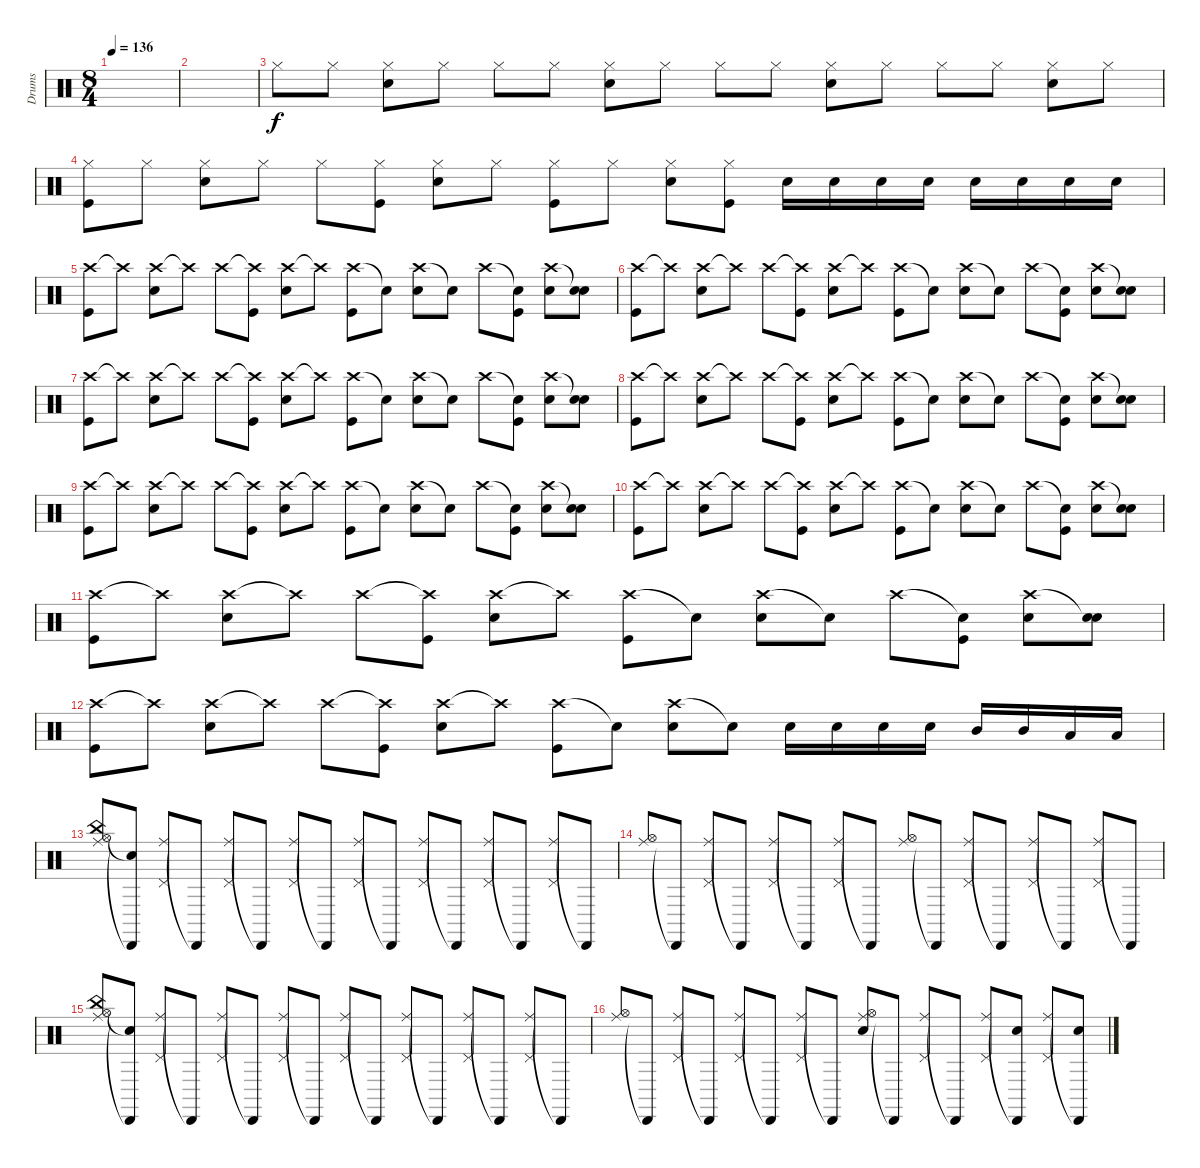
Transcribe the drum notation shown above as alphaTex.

\track ("Drums" "Drums") {instrument percussion}
\staff {score}
\articulation defaults
\ts (8 4)
\tempo 136
\clef neutral
\ks c
|
|
"Hi-Hat (closed)".8 "Hi-Hat (closed)".8 ("Hi-Hat (closed)" "Snare (hit) 2").8 "Hi-Hat (closed)".8 "Hi-Hat (closed)".8 "Hi-Hat (closed)".8 ("Hi-Hat (closed)" "Snare (hit) 2").8 "Hi-Hat (closed)".8 "Hi-Hat (closed)".8 "Hi-Hat (closed)".8 ("Hi-Hat (closed)" "Snare (hit) 2").8 "Hi-Hat (closed)".8 "Hi-Hat (closed)".8 "Hi-Hat (closed)".8 ("Hi-Hat (closed)" "Snare (hit) 2").8 "Hi-Hat (closed)".8 |
("Hi-Hat (closed)" "Kick (hit)").8 "Hi-Hat (closed)".8 ("Hi-Hat (closed)" "Snare (hit) 2").8 "Hi-Hat (closed)".8 "Hi-Hat (closed)".8 ("Hi-Hat (closed)" "Kick (hit)").8 ("Hi-Hat (closed)" "Snare (hit) 2").8 "Hi-Hat (closed)".8 ("Hi-Hat (closed)" "Kick (hit)").8 "Hi-Hat (closed)".8 ("Hi-Hat (closed)" "Snare (hit) 2").8 ("Hi-Hat (closed)" "Kick (hit)").8 "Snare (hit) 2".16 "Snare (hit) 2".16 "Snare (hit) 2".16 "Snare (hit) 2".16 "Snare (hit) 2".16 "Snare (hit) 2".16 "Snare (hit) 2".16 "Snare (hit) 2".16 |
("Crash high (hit)" "Kick (hit)").8 "Crash high (hit)"{t}.8 ("Crash high (hit)" "Snare (hit) 2").8 "Crash high (hit)"{t}.8 "Crash high (hit)".8 ("Crash high (hit)"{t} "Kick (hit)").8 ("Crash high (hit)" "Snare (hit) 2").8 "Crash high (hit)"{t}.8 ("Crash high (hit)" "Kick (hit)").8 "Snare (hit)"{t}.8 ("Crash high (hit)" "Snare (hit) 2").8 "Snare (hit)"{t}.8 "Crash high (hit)".8 ("Snare (hit)"{t} "Kick (hit)").8 ("Crash high (hit)" "Snare (hit) 2").8 ("Snare (hit)"{t} "Snare (hit) 2").8 |
("Crash high (hit)" "Kick (hit)").8 "Crash high (hit)"{t}.8 ("Crash high (hit)" "Snare (hit) 2").8 "Crash high (hit)"{t}.8 "Crash high (hit)".8 ("Crash high (hit)"{t} "Kick (hit)").8 ("Crash high (hit)" "Snare (hit) 2").8 "Crash high (hit)"{t}.8 ("Crash high (hit)" "Kick (hit)").8 "Snare (hit)"{t}.8 ("Crash high (hit)" "Snare (hit) 2").8 "Snare (hit)"{t}.8 "Crash high (hit)".8 ("Snare (hit)"{t} "Kick (hit)").8 ("Crash high (hit)" "Snare (hit) 2").8 ("Snare (hit)"{t} "Snare (hit) 2").8 |
("Crash high (hit)" "Kick (hit)").8 "Crash high (hit)"{t}.8 ("Crash high (hit)" "Snare (hit) 2").8 "Crash high (hit)"{t}.8 "Crash high (hit)".8 ("Crash high (hit)"{t} "Kick (hit)").8 ("Crash high (hit)" "Snare (hit) 2").8 "Crash high (hit)"{t}.8 ("Crash high (hit)" "Kick (hit)").8 "Snare (hit)"{t}.8 ("Crash high (hit)" "Snare (hit) 2").8 "Snare (hit)"{t}.8 "Crash high (hit)".8 ("Snare (hit)"{t} "Kick (hit)").8 ("Crash high (hit)" "Snare (hit) 2").8 ("Snare (hit)"{t} "Snare (hit) 2").8 |
("Crash high (hit)" "Kick (hit)").8 "Crash high (hit)"{t}.8 ("Crash high (hit)" "Snare (hit) 2").8 "Crash high (hit)"{t}.8 "Crash high (hit)".8 ("Crash high (hit)"{t} "Kick (hit)").8 ("Crash high (hit)" "Snare (hit) 2").8 "Crash high (hit)"{t}.8 ("Crash high (hit)" "Kick (hit)").8 "Snare (hit)"{t}.8 ("Crash high (hit)" "Snare (hit) 2").8 "Snare (hit)"{t}.8 "Crash high (hit)".8 ("Snare (hit)"{t} "Kick (hit)").8 ("Crash high (hit)" "Snare (hit) 2").8 ("Snare (hit)"{t} "Snare (hit) 2").8 |
("Crash high (hit)" "Kick (hit)").8 "Crash high (hit)"{t}.8 ("Crash high (hit)" "Snare (hit) 2").8 "Crash high (hit)"{t}.8 "Crash high (hit)".8 ("Crash high (hit)"{t} "Kick (hit)").8 ("Crash high (hit)" "Snare (hit) 2").8 "Crash high (hit)"{t}.8 ("Crash high (hit)" "Kick (hit)").8 "Snare (hit)"{t}.8 ("Crash high (hit)" "Snare (hit) 2").8 "Snare (hit)"{t}.8 "Crash high (hit)".8 ("Snare (hit)"{t} "Kick (hit)").8 ("Crash high (hit)" "Snare (hit) 2").8 ("Snare (hit)"{t} "Snare (hit) 2").8 |
("Crash high (hit)" "Kick (hit)").8 "Crash high (hit)"{t}.8 ("Crash high (hit)" "Snare (hit) 2").8 "Crash high (hit)"{t}.8 "Crash high (hit)".8 ("Crash high (hit)"{t} "Kick (hit)").8 ("Crash high (hit)" "Snare (hit) 2").8 "Crash high (hit)"{t}.8 ("Crash high (hit)" "Kick (hit)").8 "Snare (hit)"{t}.8 ("Crash high (hit)" "Snare (hit) 2").8 "Snare (hit)"{t}.8 "Crash high (hit)".8 ("Snare (hit)"{t} "Kick (hit)").8 ("Crash high (hit)" "Snare (hit) 2").8 ("Snare (hit)"{t} "Snare (hit) 2").8 |
("Crash high (hit)" "Kick (hit)").8 "Crash high (hit)"{t}.8 ("Crash high (hit)" "Snare (hit) 2").8 "Crash high (hit)"{t}.8 "Crash high (hit)".8 ("Crash high (hit)"{t} "Kick (hit)").8 ("Crash high (hit)" "Snare (hit) 2").8 "Crash high (hit)"{t}.8 ("Crash high (hit)" "Kick (hit)").8 "Snare (hit)"{t}.8 ("Crash high (hit)" "Snare (hit) 2").8 "Snare (hit)"{t}.8 "Crash high (hit)".8 ("Snare (hit)"{t} "Kick (hit)").8 ("Crash high (hit)" "Snare (hit) 2").8 ("Snare (hit)"{t} "Snare (hit) 2").8 |
("Crash high (hit)" "Kick (hit)").8 "Crash high (hit)"{t}.8 ("Crash high (hit)" "Snare (hit) 2").8 "Crash high (hit)"{t}.8 "Crash high (hit)".8 ("Crash high (hit)"{t} "Kick (hit)").8 ("Crash high (hit)" "Snare (hit) 2").8 "Crash high (hit)"{t}.8 ("Crash high (hit)" "Kick (hit)").8 "Snare (hit)"{t}.8 ("Crash high (hit)" "Snare (hit) 2").8 "Snare (hit)"{t}.8 "Snare (hit) 2".16 "Snare (hit) 2".16 "Snare (hit) 2".16 "Snare (hit) 2".16 "Mid Tom (hit)".16 "Mid Tom (hit)".16 "Low Tom (hit)".16 "Low Floor Tom (hit)".16 |
("China (hit)" "Ride (middle)" "Hi-Hat (open)").8 ("Snare (hit)"{t} "Cabasa (hit)"{t}).8 ("Ride (middle)" "Pedal Hi-Hat (hit)").8 "Cabasa (hit)"{t}.8 ("Ride (middle)" "Pedal Hi-Hat (hit)").8 "Cabasa (hit)"{t}.8 ("Ride (middle)" "Pedal Hi-Hat (hit)").8 "Cabasa (hit)"{t}.8 ("Ride (middle)" "Pedal Hi-Hat (hit)").8 "Cabasa (hit)"{t}.8 ("Ride (middle)" "Pedal Hi-Hat (hit)").8 "Cabasa (hit)"{t}.8 ("Ride (middle)" "Pedal Hi-Hat (hit)").8 "Cabasa (hit)"{t}.8 ("Ride (middle)" "Pedal Hi-Hat (hit)").8 "Cabasa (hit)"{t}.8 |
("Ride (middle)" "Hi-Hat (open)").8 "Cabasa (hit)"{t}.8 ("Ride (middle)" "Pedal Hi-Hat (hit)").8 "Cabasa (hit)"{t}.8 ("Ride (middle)" "Pedal Hi-Hat (hit)").8 "Cabasa (hit)"{t}.8 ("Ride (middle)" "Pedal Hi-Hat (hit)").8 "Cabasa (hit)"{t}.8 ("Ride (middle)" "Hi-Hat (open)").8 "Cabasa (hit)"{t}.8 ("Ride (middle)" "Pedal Hi-Hat (hit)").8 "Cabasa (hit)"{t}.8 ("Ride (middle)" "Pedal Hi-Hat (hit)").8 "Cabasa (hit)"{t}.8 ("Ride (middle)" "Pedal Hi-Hat (hit)").8 "Cabasa (hit)"{t}.8 |
("China (hit)" "Ride (middle)" "Hi-Hat (open)").8 ("Snare (hit)"{t} "Cabasa (hit)"{t}).8 ("Ride (middle)" "Pedal Hi-Hat (hit)").8 "Cabasa (hit)"{t}.8 ("Ride (middle)" "Pedal Hi-Hat (hit)").8 "Cabasa (hit)"{t}.8 ("Ride (middle)" "Pedal Hi-Hat (hit)").8 "Cabasa (hit)"{t}.8 ("Ride (middle)" "Pedal Hi-Hat (hit)").8 "Cabasa (hit)"{t}.8 ("Ride (middle)" "Pedal Hi-Hat (hit)").8 "Cabasa (hit)"{t}.8 ("Ride (middle)" "Pedal Hi-Hat (hit)").8 "Cabasa (hit)"{t}.8 ("Ride (middle)" "Pedal Hi-Hat (hit)").8 "Cabasa (hit)"{t}.8 |
("Ride (middle)" "Hi-Hat (open)").8 "Cabasa (hit)"{t}.8 ("Ride (middle)" "Pedal Hi-Hat (hit)").8 "Cabasa (hit)"{t}.8 ("Ride (middle)" "Pedal Hi-Hat (hit)").8 "Cabasa (hit)"{t}.8 ("Ride (middle)" "Pedal Hi-Hat (hit)").8 "Cabasa (hit)"{t}.8 ("Ride (middle)" "Hi-Hat (open)" "Snare (hit) 2").8 "Cabasa (hit)"{t}.8 ("Ride (middle)" "Pedal Hi-Hat (hit)").8 "Cabasa (hit)"{t}.8 ("Ride (middle)" "Pedal Hi-Hat (hit)").8 ("Cabasa (hit)"{t} "Snare (hit) 2").8 ("Ride (middle)" "Pedal Hi-Hat (hit)").8 ("Cabasa (hit)"{t} "Snare (hit) 2").8
